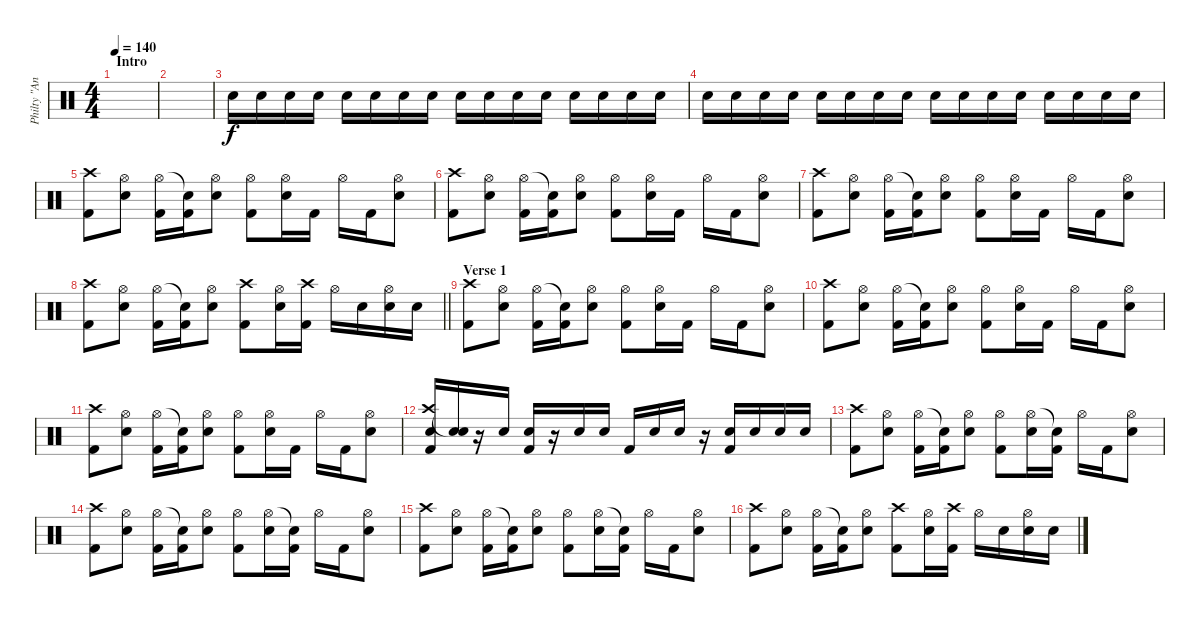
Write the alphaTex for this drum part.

\track ("Philty \"Animal\" Taylor (Drums)" "Philty \"An") {instrument percussion}
\staff {score}
\articulation defaults
\ts (4 4)
\section ("" "Intro")
\tempo 140
\clef neutral
\ks c
|
|
"Electric Snare (hit)".16 "Electric Snare (hit)".16 "Electric Snare (hit)".16 "Electric Snare (hit)".16 "Electric Snare (hit)".16 "Electric Snare (hit)".16 "Electric Snare (hit)".16 "Electric Snare (hit)".16 "Electric Snare (hit)".16 "Electric Snare (hit)".16 "Electric Snare (hit)".16 "Electric Snare (hit)".16 "Electric Snare (hit)".16 "Electric Snare (hit)".16 "Electric Snare (hit)".16 "Electric Snare (hit)".16 |
"Electric Snare (hit)".16 "Electric Snare (hit)".16 "Electric Snare (hit)".16 "Electric Snare (hit)".16 "Electric Snare (hit)".16 "Electric Snare (hit)".16 "Electric Snare (hit)".16 "Electric Snare (hit)".16 "Electric Snare (hit)".16 "Electric Snare (hit)".16 "Electric Snare (hit)".16 "Electric Snare (hit)".16 "Electric Snare (hit)".16 "Electric Snare (hit)".16 "Electric Snare (hit)".16 "Electric Snare (hit)".16 |
("Crash high (hit)" "Kick (hit) 2").8 ("Hi-Hat (open)" "Electric Snare (hit)").8 ("Hi-Hat (open)" "Kick (hit) 2").16 ("Snare (hit)"{t} "Kick (hit) 2").16 ("Hi-Hat (open)" "Electric Snare (hit)").8 ("Hi-Hat (open)" "Kick (hit) 2").8 ("Hi-Hat (open)" "Electric Snare (hit)").16 "Kick (hit) 2".16 "Hi-Hat (open)".16 "Kick (hit) 2".16 ("Hi-Hat (open)" "Electric Snare (hit)").8 |
("Crash high (hit)" "Kick (hit) 2").8 ("Hi-Hat (open)" "Electric Snare (hit)").8 ("Hi-Hat (open)" "Kick (hit) 2").16 ("Snare (hit)"{t} "Kick (hit) 2").16 ("Hi-Hat (open)" "Electric Snare (hit)").8 ("Hi-Hat (open)" "Kick (hit) 2").8 ("Hi-Hat (open)" "Electric Snare (hit)").16 "Kick (hit) 2".16 "Hi-Hat (open)".16 "Kick (hit) 2".16 ("Hi-Hat (open)" "Electric Snare (hit)").8 |
("Crash high (hit)" "Kick (hit) 2").8 ("Hi-Hat (open)" "Electric Snare (hit)").8 ("Hi-Hat (open)" "Kick (hit) 2").16 ("Snare (hit)"{t} "Kick (hit) 2").16 ("Hi-Hat (open)" "Electric Snare (hit)").8 ("Hi-Hat (open)" "Kick (hit) 2").8 ("Hi-Hat (open)" "Electric Snare (hit)").16 "Kick (hit) 2".16 "Hi-Hat (open)".16 "Kick (hit) 2".16 ("Hi-Hat (open)" "Electric Snare (hit)").8 |
\barLineRight lightlight
("Crash high (hit)" "Kick (hit) 2").8 ("Hi-Hat (open)" "Electric Snare (hit)").8 ("Hi-Hat (open)" "Kick (hit) 2").16 ("Snare (hit)"{t} "Kick (hit) 2").16 ("Hi-Hat (open)" "Electric Snare (hit)").8 ("Crash high (hit)" "Kick (hit) 2").8 ("Hi-Hat (open)" "Electric Snare (hit)").16 ("Crash high (hit)" "Kick (hit) 2").16 "Hi-Hat (open)".16 "Electric Snare (hit)".16 ("Hi-Hat (open)" "Electric Snare (hit)").16 "Electric Snare (hit)".16 |
\section ("" "Verse 1")
("Crash high (hit)" "Kick (hit) 2").8 ("Hi-Hat (open)" "Electric Snare (hit)").8 ("Hi-Hat (open)" "Kick (hit) 2").16 ("Snare (hit)"{t} "Kick (hit) 2").16 ("Hi-Hat (open)" "Electric Snare (hit)").8 ("Hi-Hat (open)" "Kick (hit) 2").8 ("Hi-Hat (open)" "Electric Snare (hit)").16 "Kick (hit) 2".16 "Hi-Hat (open)".16 "Kick (hit) 2".16 ("Hi-Hat (open)" "Electric Snare (hit)").8 |
("Crash high (hit)" "Kick (hit) 2").8 ("Hi-Hat (open)" "Electric Snare (hit)").8 ("Hi-Hat (open)" "Kick (hit) 2").16 ("Snare (hit)"{t} "Kick (hit) 2").16 ("Hi-Hat (open)" "Electric Snare (hit)").8 ("Hi-Hat (open)" "Kick (hit) 2").8 ("Hi-Hat (open)" "Electric Snare (hit)").16 "Kick (hit) 2".16 "Hi-Hat (open)".16 "Kick (hit) 2".16 ("Hi-Hat (open)" "Electric Snare (hit)").8 |
("Crash high (hit)" "Kick (hit) 2").8 ("Hi-Hat (open)" "Electric Snare (hit)").8 ("Hi-Hat (open)" "Kick (hit) 2").16 ("Snare (hit)"{t} "Kick (hit) 2").16 ("Hi-Hat (open)" "Electric Snare (hit)").8 ("Hi-Hat (open)" "Kick (hit) 2").8 ("Hi-Hat (open)" "Electric Snare (hit)").16 "Kick (hit) 2".16 "Hi-Hat (open)".16 "Kick (hit) 2".16 ("Hi-Hat (open)" "Electric Snare (hit)").8 |
("Crash high (hit)" "Electric Snare (hit)" "Kick (hit) 2").16 ("Snare (hit)"{t} "Electric Snare (hit)").16 r.16 "Electric Snare (hit)".16 ("Electric Snare (hit)" "Kick (hit) 2").16 r.16 "Electric Snare (hit)".16 "Electric Snare (hit)".16 "Kick (hit) 2".16 "Electric Snare (hit)".16 "Electric Snare (hit)".16 r.16 ("Electric Snare (hit)" "Kick (hit) 2").16 "Electric Snare (hit)".16 "Electric Snare (hit)".16 "Electric Snare (hit)".16 |
("Crash high (hit)" "Kick (hit) 2").8 ("Hi-Hat (open)" "Electric Snare (hit)").8 ("Hi-Hat (open)" "Kick (hit) 2").16 ("Snare (hit)"{t} "Kick (hit) 2").16 ("Hi-Hat (open)" "Electric Snare (hit)").8 ("Hi-Hat (open)" "Kick (hit) 2").8 ("Hi-Hat (open)" "Electric Snare (hit)").16 ("Snare (hit)"{t} "Kick (hit) 2").16 "Hi-Hat (open)".16 "Kick (hit) 2".16 ("Hi-Hat (open)" "Electric Snare (hit)").8 |
("Crash high (hit)" "Kick (hit) 2").8 ("Hi-Hat (open)" "Electric Snare (hit)").8 ("Hi-Hat (open)" "Kick (hit) 2").16 ("Snare (hit)"{t} "Kick (hit) 2").16 ("Hi-Hat (open)" "Electric Snare (hit)").8 ("Hi-Hat (open)" "Kick (hit) 2").8 ("Hi-Hat (open)" "Electric Snare (hit)").16 ("Snare (hit)"{t} "Kick (hit) 2").16 "Hi-Hat (open)".16 "Kick (hit) 2".16 ("Hi-Hat (open)" "Electric Snare (hit)").8 |
("Crash high (hit)" "Kick (hit) 2").8 ("Hi-Hat (open)" "Electric Snare (hit)").8 ("Hi-Hat (open)" "Kick (hit) 2").16 ("Snare (hit)"{t} "Kick (hit) 2").16 ("Hi-Hat (open)" "Electric Snare (hit)").8 ("Hi-Hat (open)" "Kick (hit) 2").8 ("Hi-Hat (open)" "Electric Snare (hit)").16 ("Snare (hit)"{t} "Kick (hit) 2").16 "Hi-Hat (open)".16 "Kick (hit) 2".16 ("Hi-Hat (open)" "Electric Snare (hit)").8 |
("Crash high (hit)" "Kick (hit) 2").8 ("Hi-Hat (open)" "Electric Snare (hit)").8 ("Hi-Hat (open)" "Kick (hit) 2").16 ("Snare (hit)"{t} "Kick (hit) 2").16 ("Hi-Hat (open)" "Electric Snare (hit)").8 ("Crash high (hit)" "Kick (hit) 2").8 ("Hi-Hat (open)" "Electric Snare (hit)").16 ("Crash high (hit)" "Kick (hit) 2").16 "Hi-Hat (open)".16 "Electric Snare (hit)".16 ("Hi-Hat (open)" "Electric Snare (hit)").16 "Electric Snare (hit)".16
